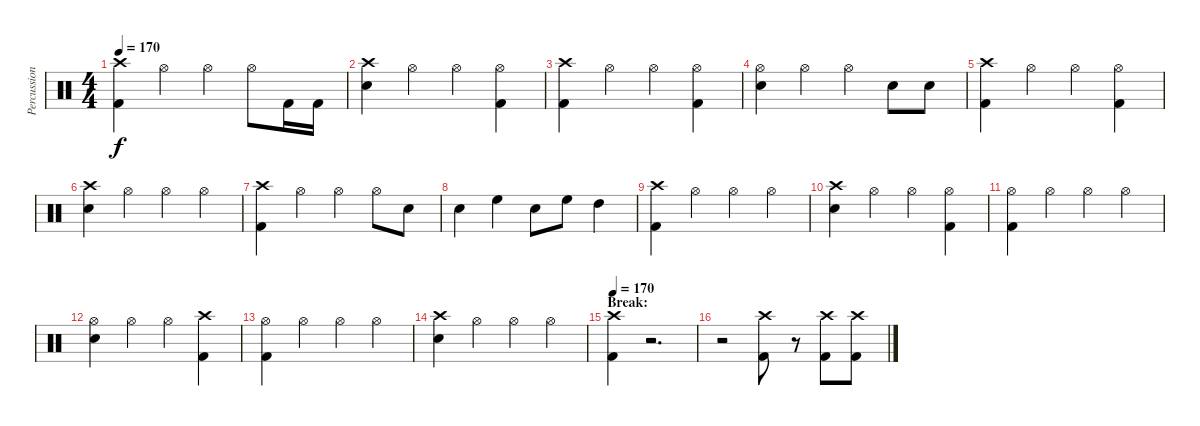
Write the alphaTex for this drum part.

\track ("Percussion" "Percussion") {instrument percussion}
\staff {score}
\articulation defaults
\ts (4 4)
\tempo 170
\clef neutral
\ks c
("Crash high (hit)" "Kick (hit) 2").4{dy f} "Hi-Hat (open)".4 "Hi-Hat (open)".4 "Hi-Hat (open)".8 "Kick (hit) 2".16 "Kick (hit) 2".16 |
("Crash high (hit)" "Electric Snare (hit)").4 "Hi-Hat (open)".4 "Hi-Hat (open)".4 ("Hi-Hat (open)" "Kick (hit) 2").4 |
("Crash high (hit)" "Kick (hit) 2").4 "Hi-Hat (open)".4 "Hi-Hat (open)".4 ("Hi-Hat (open)" "Kick (hit) 2").4 |
("Hi-Hat (open)" "Electric Snare (hit)").4 "Hi-Hat (open)".4 "Hi-Hat (open)".4 "Electric Snare (hit)".8 "Electric Snare (hit)".8 |
("Crash high (hit)" "Kick (hit) 2").4 "Hi-Hat (open)".4 "Hi-Hat (open)".4 ("Hi-Hat (open)" "Kick (hit) 2").4 |
("Crash high (hit)" "Electric Snare (hit)").4 "Hi-Hat (open)".4 "Hi-Hat (open)".4 "Hi-Hat (open)".4 |
("Crash high (hit)" "Kick (hit) 2").4 "Hi-Hat (open)".4 "Hi-Hat (open)".4 "Hi-Hat (open)".8 "Electric Snare (hit)".8 |
"Electric Snare (hit)".4 "High Floor Tom (hit)".4 "Electric Snare (hit)".8 "High Floor Tom (hit)".8 "High Tom (hit)".4 |
("Crash high (hit)" "Kick (hit) 2").4 "Hi-Hat (open)".4 "Hi-Hat (open)".4 "Hi-Hat (open)".4 |
("Crash high (hit)" "Electric Snare (hit)").4 "Hi-Hat (open)".4 "Hi-Hat (open)".4 ("Hi-Hat (open)" "Kick (hit) 2").4 |
("Hi-Hat (open)" "Kick (hit) 2").4 "Hi-Hat (open)".4 "Hi-Hat (open)".4 "Hi-Hat (open)".4 |
("Hi-Hat (open)" "Electric Snare (hit)").4 "Hi-Hat (open)".4 "Hi-Hat (open)".4 ("Crash high (hit)" "Kick (hit) 2").4 |
("Hi-Hat (open)" "Kick (hit) 2").4 "Hi-Hat (open)".4 "Hi-Hat (open)".4 "Hi-Hat (open)".4 |
("Crash high (hit)" "Electric Snare (hit)").4 "Hi-Hat (open)".4 "Hi-Hat (open)".4 "Hi-Hat (open)".4 |
\section ("" "Break:")
\tempo 170
("Crash high (hit)" "Kick (hit) 2").4 r.2{d} |
r.2 ("Crash high (hit)" "Kick (hit) 2").8 r.8 ("Crash high (hit)" "Kick (hit) 2").8 ("Crash high (hit)" "Kick (hit) 2").8
